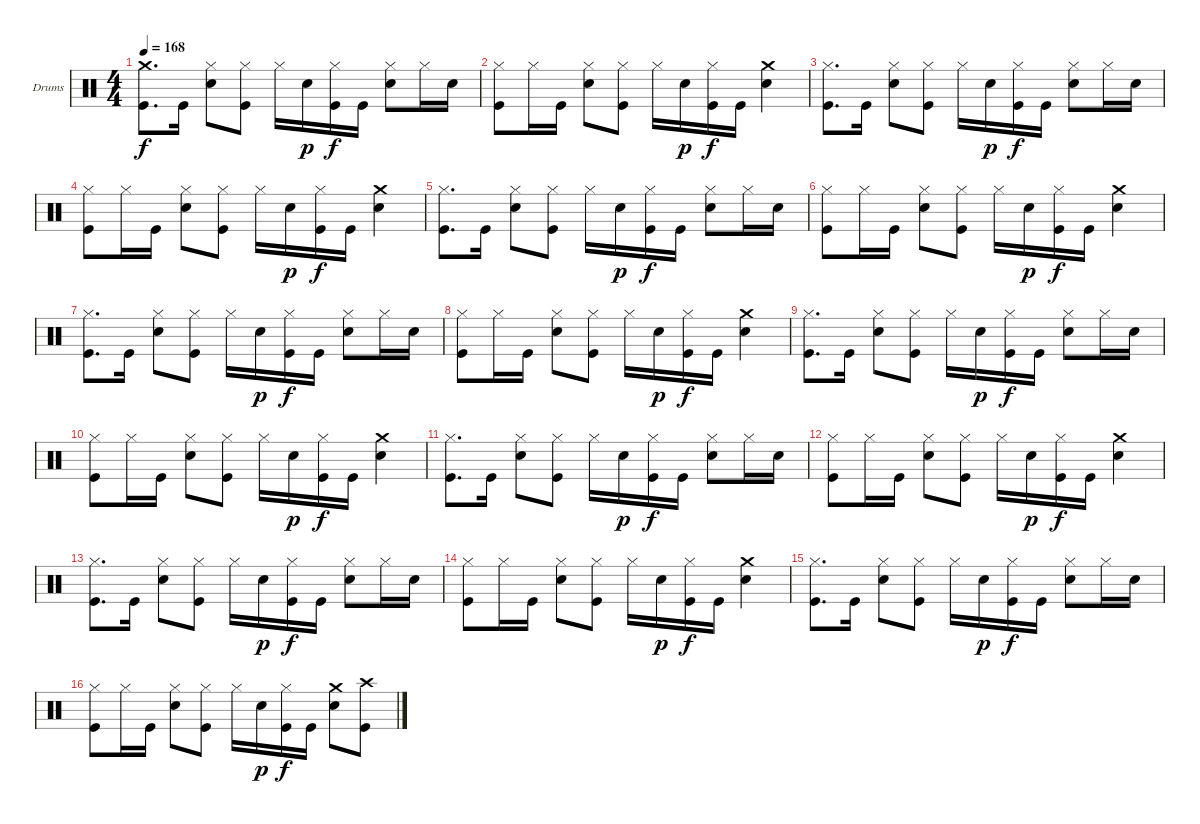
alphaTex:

\bracketExtendMode groupsimilarinstruments
\firstSystemTrackNameOrientation horizontal
\otherSystemsTrackNameOrientation horizontal
\track ("Drumkit" "Drums") {instrument percussion}
\staff {score}
\articulation defaults
\ts (4 4)
\tempo 168
\clef neutral
\ks c
("Crash medium (hit)" "Kick (hit)").8{d dy f} "Kick (hit)".16 ("Hi-Hat (closed)" "Snare (hit) 2").8 ("Hi-Hat (closed)" "Kick (hit)").8 "Hi-Hat (closed)".16 "Snare (hit) 2".16{dy p} ("Hi-Hat (closed)" "Kick (hit)").16{dy f} "Kick (hit)".16 ("Hi-Hat (closed)" "Snare (hit) 2").8 "Hi-Hat (closed)".16 "Snare (hit) 2".16 |
("Hi-Hat (closed)" "Kick (hit)").8 "Hi-Hat (closed)".16 "Kick (hit)".16 ("Hi-Hat (closed)" "Snare (hit) 2").8 ("Hi-Hat (closed)" "Kick (hit)").8 "Hi-Hat (closed)".16 "Snare (hit) 2".16{dy p} ("Hi-Hat (closed)" "Kick (hit)").16{dy f} "Kick (hit)".16 ("Crash medium (hit)" "Snare (hit) 2").4 |
("Hi-Hat (closed)" "Kick (hit)").8{d} "Kick (hit)".16 ("Hi-Hat (closed)" "Snare (hit) 2").8 ("Hi-Hat (closed)" "Kick (hit)").8 "Hi-Hat (closed)".16 "Snare (hit) 2".16{dy p} ("Hi-Hat (closed)" "Kick (hit)").16{dy f} "Kick (hit)".16 ("Hi-Hat (closed)" "Snare (hit) 2").8 "Hi-Hat (closed)".16 "Snare (hit) 2".16 |
("Hi-Hat (closed)" "Kick (hit)").8 "Hi-Hat (closed)".16 "Kick (hit)".16 ("Hi-Hat (closed)" "Snare (hit) 2").8 ("Hi-Hat (closed)" "Kick (hit)").8 "Hi-Hat (closed)".16 "Snare (hit) 2".16{dy p} ("Hi-Hat (closed)" "Kick (hit)").16{dy f} "Kick (hit)".16 ("Crash medium (hit)" "Snare (hit) 2").4 |
("Hi-Hat (closed)" "Kick (hit)").8{d} "Kick (hit)".16 ("Hi-Hat (closed)" "Snare (hit) 2").8 ("Hi-Hat (closed)" "Kick (hit)").8 "Hi-Hat (closed)".16 "Snare (hit) 2".16{dy p} ("Hi-Hat (closed)" "Kick (hit)").16{dy f} "Kick (hit)".16 ("Hi-Hat (closed)" "Snare (hit) 2").8 "Hi-Hat (closed)".16 "Snare (hit) 2".16 |
("Hi-Hat (closed)" "Kick (hit)").8 "Hi-Hat (closed)".16 "Kick (hit)".16 ("Hi-Hat (closed)" "Snare (hit) 2").8 ("Hi-Hat (closed)" "Kick (hit)").8 "Hi-Hat (closed)".16 "Snare (hit) 2".16{dy p} ("Hi-Hat (closed)" "Kick (hit)").16{dy f} "Kick (hit)".16 ("Crash medium (hit)" "Snare (hit) 2").4 |
("Hi-Hat (closed)" "Kick (hit)").8{d} "Kick (hit)".16 ("Hi-Hat (closed)" "Snare (hit) 2").8 ("Hi-Hat (closed)" "Kick (hit)").8 "Hi-Hat (closed)".16 "Snare (hit) 2".16{dy p} ("Hi-Hat (closed)" "Kick (hit)").16{dy f} "Kick (hit)".16 ("Hi-Hat (closed)" "Snare (hit) 2").8 "Hi-Hat (closed)".16 "Snare (hit) 2".16 |
("Hi-Hat (closed)" "Kick (hit)").8 "Hi-Hat (closed)".16 "Kick (hit)".16 ("Hi-Hat (closed)" "Snare (hit) 2").8 ("Hi-Hat (closed)" "Kick (hit)").8 "Hi-Hat (closed)".16 "Snare (hit) 2".16{dy p} ("Hi-Hat (closed)" "Kick (hit)").16{dy f} "Kick (hit)".16 ("Crash medium (hit)" "Snare (hit) 2").4 |
("Hi-Hat (closed)" "Kick (hit)").8{d} "Kick (hit)".16 ("Hi-Hat (closed)" "Snare (hit) 2").8 ("Hi-Hat (closed)" "Kick (hit)").8 "Hi-Hat (closed)".16 "Snare (hit) 2".16{dy p} ("Hi-Hat (closed)" "Kick (hit)").16{dy f} "Kick (hit)".16 ("Hi-Hat (closed)" "Snare (hit) 2").8 "Hi-Hat (closed)".16 "Snare (hit) 2".16 |
("Hi-Hat (closed)" "Kick (hit)").8 "Hi-Hat (closed)".16 "Kick (hit)".16 ("Hi-Hat (closed)" "Snare (hit) 2").8 ("Hi-Hat (closed)" "Kick (hit)").8 "Hi-Hat (closed)".16 "Snare (hit) 2".16{dy p} ("Hi-Hat (closed)" "Kick (hit)").16{dy f} "Kick (hit)".16 ("Crash medium (hit)" "Snare (hit) 2").4 |
("Hi-Hat (closed)" "Kick (hit)").8{d} "Kick (hit)".16 ("Hi-Hat (closed)" "Snare (hit) 2").8 ("Hi-Hat (closed)" "Kick (hit)").8 "Hi-Hat (closed)".16 "Snare (hit) 2".16{dy p} ("Hi-Hat (closed)" "Kick (hit)").16{dy f} "Kick (hit)".16 ("Hi-Hat (closed)" "Snare (hit) 2").8 "Hi-Hat (closed)".16 "Snare (hit) 2".16 |
("Hi-Hat (closed)" "Kick (hit)").8 "Hi-Hat (closed)".16 "Kick (hit)".16 ("Hi-Hat (closed)" "Snare (hit) 2").8 ("Hi-Hat (closed)" "Kick (hit)").8 "Hi-Hat (closed)".16 "Snare (hit) 2".16{dy p} ("Hi-Hat (closed)" "Kick (hit)").16{dy f} "Kick (hit)".16 ("Crash medium (hit)" "Snare (hit) 2").4 |
("Hi-Hat (closed)" "Kick (hit)").8{d} "Kick (hit)".16 ("Hi-Hat (closed)" "Snare (hit) 2").8 ("Hi-Hat (closed)" "Kick (hit)").8 "Hi-Hat (closed)".16 "Snare (hit) 2".16{dy p} ("Hi-Hat (closed)" "Kick (hit)").16{dy f} "Kick (hit)".16 ("Hi-Hat (closed)" "Snare (hit) 2").8 "Hi-Hat (closed)".16 "Snare (hit) 2".16 |
("Hi-Hat (closed)" "Kick (hit)").8 "Hi-Hat (closed)".16 "Kick (hit)".16 ("Hi-Hat (closed)" "Snare (hit) 2").8 ("Hi-Hat (closed)" "Kick (hit)").8 "Hi-Hat (closed)".16 "Snare (hit) 2".16{dy p} ("Hi-Hat (closed)" "Kick (hit)").16{dy f} "Kick (hit)".16 ("Crash medium (hit)" "Snare (hit) 2").4 |
("Hi-Hat (closed)" "Kick (hit)").8{d} "Kick (hit)".16 ("Hi-Hat (closed)" "Snare (hit) 2").8 ("Hi-Hat (closed)" "Kick (hit)").8 "Hi-Hat (closed)".16 "Snare (hit) 2".16{dy p} ("Hi-Hat (closed)" "Kick (hit)").16{dy f} "Kick (hit)".16 ("Hi-Hat (closed)" "Snare (hit) 2").8 "Hi-Hat (closed)".16 "Snare (hit) 2".16 |
("Hi-Hat (closed)" "Kick (hit)").8 "Hi-Hat (closed)".16 "Kick (hit)".16 ("Hi-Hat (closed)" "Snare (hit) 2").8 ("Hi-Hat (closed)" "Kick (hit)").8 "Hi-Hat (closed)".16 "Snare (hit) 2".16{dy p} ("Hi-Hat (closed)" "Kick (hit)").16{dy f} "Kick (hit)".16 ("Crash medium (hit)" "Snare (hit) 2").8 ("Crash high (hit)" "Kick (hit)").8
